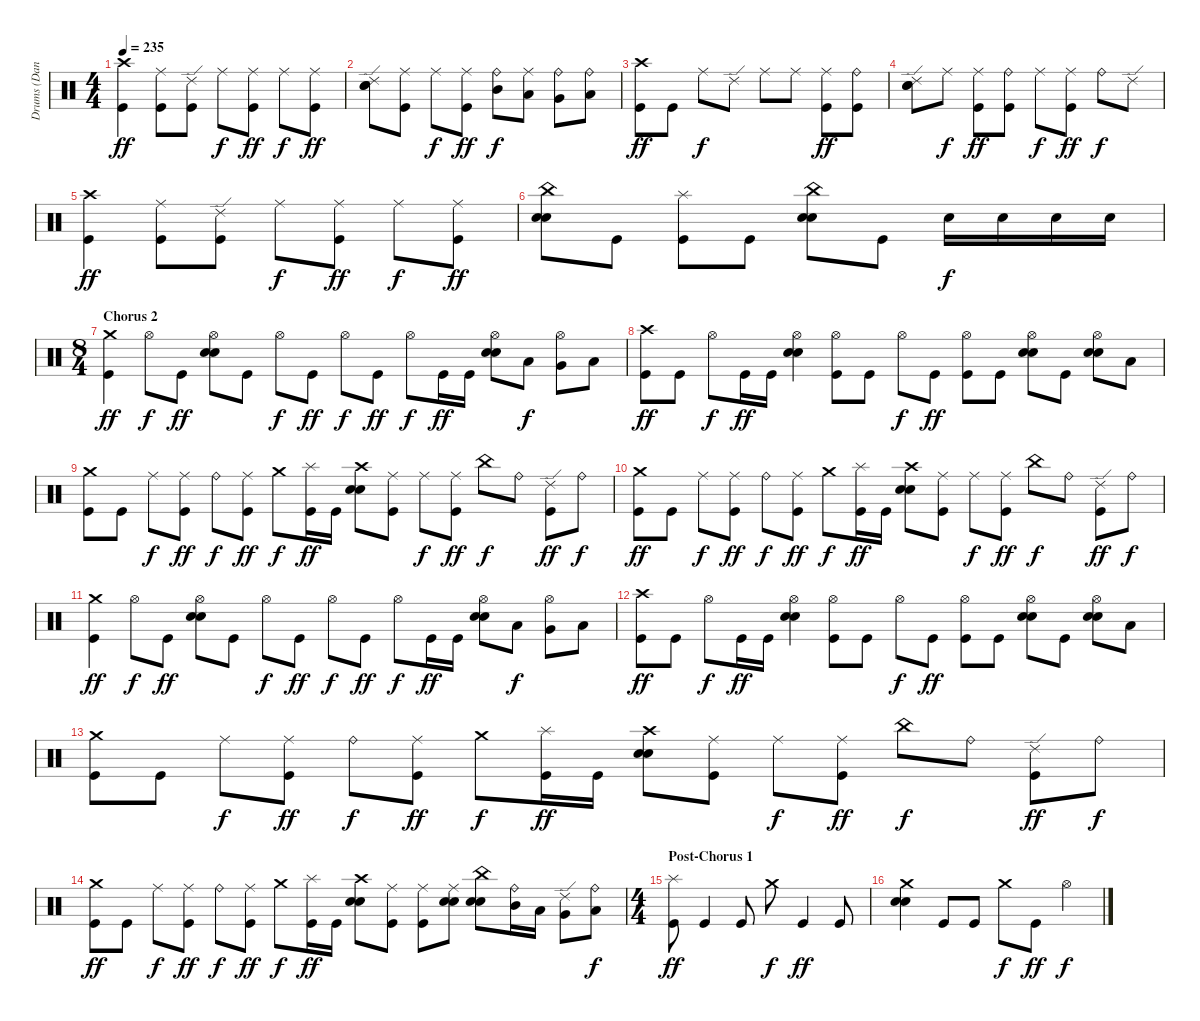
\track ("Drums (Dan)" "Drums (Dan") {instrument percussion}
\staff {score}
\articulation defaults
\ts (4 4)
\tempo 235
\clef neutral
\ks c
("Kick (hit)" "Crash high (hit)").4{dy ff} ("Kick (hit)" "Ride (middle)").8 ("Kick (hit)" "Ride (edge) 2").8 "Ride (middle)".8{dy f} ("Kick (hit)" "Ride (middle)").8{dy ff} "Ride (middle)".8{dy f} ("Kick (hit)" "Ride (middle)").8{dy ff} |
("Electric Snare (hit)" "Electric Snare (hit)" "Ride (edge) 2").8 ("Kick (hit)" "Ride (middle)").8 "Ride (middle)".8{dy f} ("Kick (hit)" "Ride (middle)").8{dy ff} ("Mid Tom (hit)" "Ride (bell)").8{dy f} ("Low Tom (hit)" "Ride (middle)").8 ("Very Low Tom (hit)" "Ride (bell)").8 ("Low Floor Tom (hit)" "Ride (bell)").8 |
("Kick (hit)" "Crash high (hit)").8{dy ff} "Kick (hit)".8 "Ride (middle)".8{dy f} "Ride (edge) 2".8 "Ride (middle)".8 "Ride (middle)".8 ("Kick (hit)" "Ride (middle)").8{dy ff} ("Kick (hit)" "Ride (bell)").8 |
("Electric Snare (hit)" "Electric Snare (hit)" "Ride (edge) 2").8 "Ride (middle)".8{dy f} ("Kick (hit)" "Ride (middle)").8{dy ff} ("Kick (hit)" "Ride (bell)").8 "Ride (middle)".8{dy f} ("Kick (hit)" "Ride (middle)").8{dy ff} "Ride (bell)".8{dy f} "Ride (edge) 2".8 |
("Kick (hit)" "Crash high (hit)").4{dy ff} ("Kick (hit)" "Ride (middle)").8 ("Kick (hit)" "Ride (edge) 2").8 "Ride (middle)".8{dy f} ("Kick (hit)" "Ride (middle)").8{dy ff} "Ride (middle)".8{dy f} ("Kick (hit)" "Ride (middle)").8{dy ff} |
("Electric Snare (hit)" "Electric Snare (hit)" "China (hit)").8 "Kick (hit)".8 ("Kick (hit)" "Splash (hit)").8 "Kick (hit)".8 ("Electric Snare (hit)" "Electric Snare (hit)" "China (hit)").8 "Kick (hit)".8 "Electric Snare (hit)".16{dy f} "Electric Snare (hit)".16 "Electric Snare (hit)".16 "Electric Snare (hit)".16 |
\ts (8 4)
\section ("" "Chorus 2")
("Kick (hit)" "Crash medium (hit)").4{dy ff} "Hi-Hat (open)".8{dy f} "Kick (hit)".8{dy ff} ("Electric Snare (hit)" "Electric Snare (hit)" "Hi-Hat (open)").8 "Kick (hit)".8 "Hi-Hat (open)".8{dy f} "Kick (hit)".8{dy ff} "Hi-Hat (open)".8{dy f} "Kick (hit)".8{dy ff} "Hi-Hat (open)".8{dy f} "Kick (hit)".16{dy ff} "Kick (hit)".16 ("Electric Snare (hit)" "Electric Snare (hit)" "Hi-Hat (open)").8 "Low Tom (hit)".8{dy f} ("Very Low Tom (hit)" "Hi-Hat (open)").8 "Low Floor Tom (hit)".8 |
("Kick (hit)" "Crash high (hit)").8{dy ff} "Kick (hit)".8 "Hi-Hat (open)".8{dy f} "Kick (hit)".16{dy ff} "Kick (hit)".16 ("Electric Snare (hit)" "Electric Snare (hit)" "Hi-Hat (open)").4 ("Kick (hit)" "Hi-Hat (open)").8 "Kick (hit)".8 "Hi-Hat (open)".8{dy f} "Kick (hit)".8{dy ff} ("Kick (hit)" "Hi-Hat (open)").8 "Kick (hit)".8 ("Electric Snare (hit)" "Electric Snare (hit)" "Hi-Hat (open)").8 "Kick (hit)".8 ("Electric Snare (hit)" "Electric Snare (hit)" "Hi-Hat (open)").8 "Low Floor Tom (hit)".8 |
("Kick (hit)" "Crash medium (hit)").8 "Kick (hit)".8 "Ride (middle)".8{dy f} ("Kick (hit)" "Ride (middle)").8{dy ff} "Ride (bell)".8{dy f} ("Kick (hit)" "Ride (middle)").8{dy ff} "Crash medium (hit)".8{dy f} ("Kick (hit)" "Splash (hit)").16{dy ff} "Kick (hit)".16 ("Electric Snare (hit)" "Electric Snare (hit)" "Crash high (hit)").8 ("Kick (hit)" "Ride (middle)").8 "Ride (middle)".8{dy f} ("Kick (hit)" "Ride (middle)").8{dy ff} "China (hit)".8{dy f} "Ride (bell)".8 ("Kick (hit)" "Ride (edge) 2").8{dy ff} "Ride (bell)".8{dy f} |
("Kick (hit)" "Crash medium (hit)").8{dy ff} "Kick (hit)".8 "Ride (middle)".8{dy f} ("Kick (hit)" "Ride (middle)").8{dy ff} "Ride (bell)".8{dy f} ("Kick (hit)" "Ride (middle)").8{dy ff} "Crash medium (hit)".8{dy f} ("Kick (hit)" "Splash (hit)").16{dy ff} "Kick (hit)".16 ("Electric Snare (hit)" "Electric Snare (hit)" "Crash high (hit)").8 ("Kick (hit)" "Ride (middle)").8 "Ride (middle)".8{dy f} ("Kick (hit)" "Ride (middle)").8{dy ff} "China (hit)".8{dy f} "Ride (bell)".8 ("Kick (hit)" "Ride (edge) 2").8{dy ff} "Ride (bell)".8{dy f} |
("Kick (hit)" "Crash medium (hit)").4{dy ff} "Hi-Hat (open)".8{dy f} "Kick (hit)".8{dy ff} ("Electric Snare (hit)" "Electric Snare (hit)" "Hi-Hat (open)").8 "Kick (hit)".8 "Hi-Hat (open)".8{dy f} "Kick (hit)".8{dy ff} "Hi-Hat (open)".8{dy f} "Kick (hit)".8{dy ff} "Hi-Hat (open)".8{dy f} "Kick (hit)".16{dy ff} "Kick (hit)".16 ("Electric Snare (hit)" "Electric Snare (hit)" "Hi-Hat (open)").8 "Low Tom (hit)".8{dy f} ("Very Low Tom (hit)" "Hi-Hat (open)").8 "Low Floor Tom (hit)".8 |
("Kick (hit)" "Crash high (hit)").8{dy ff} "Kick (hit)".8 "Hi-Hat (open)".8{dy f} "Kick (hit)".16{dy ff} "Kick (hit)".16 ("Electric Snare (hit)" "Electric Snare (hit)" "Hi-Hat (open)").4 ("Kick (hit)" "Hi-Hat (open)").8 "Kick (hit)".8 "Hi-Hat (open)".8{dy f} "Kick (hit)".8{dy ff} ("Kick (hit)" "Hi-Hat (open)").8 "Kick (hit)".8 ("Electric Snare (hit)" "Electric Snare (hit)" "Hi-Hat (open)").8 "Kick (hit)".8 ("Electric Snare (hit)" "Electric Snare (hit)" "Hi-Hat (open)").8 "Low Floor Tom (hit)".8 |
("Kick (hit)" "Crash medium (hit)").8 "Kick (hit)".8 "Ride (middle)".8{dy f} ("Kick (hit)" "Ride (middle)").8{dy ff} "Ride (bell)".8{dy f} ("Kick (hit)" "Ride (middle)").8{dy ff} "Crash medium (hit)".8{dy f} ("Kick (hit)" "Splash (hit)").16{dy ff} "Kick (hit)".16 ("Electric Snare (hit)" "Electric Snare (hit)" "Crash high (hit)").8 ("Kick (hit)" "Ride (middle)").8 "Ride (middle)".8{dy f} ("Kick (hit)" "Ride (middle)").8{dy ff} "China (hit)".8{dy f} "Ride (bell)".8 ("Kick (hit)" "Ride (edge) 2").8{dy ff} "Ride (bell)".8{dy f} |
("Kick (hit)" "Crash medium (hit)").8{dy ff} "Kick (hit)".8 "Ride (middle)".8{dy f} ("Kick (hit)" "Ride (middle)").8{dy ff} "Ride (bell)".8{dy f} ("Kick (hit)" "Ride (middle)").8{dy ff} "Crash medium (hit)".8{dy f} ("Kick (hit)" "Splash (hit)").16{dy ff} "Kick (hit)".16 ("Electric Snare (hit)" "Electric Snare (hit)" "Crash high (hit)").8 ("Kick (hit)" "Ride (middle)").8 ("Kick (hit)" "Ride (middle)").8 ("Electric Snare (hit)" "Electric Snare (hit)" "Ride (middle)").8 ("Electric Snare (hit)" "Electric Snare (hit)" "China (hit)").8 ("Mid Tom (hit)" "Ride (bell)").16 "Low Tom (hit)".16 ("Very Low Tom (hit)" "Ride (edge) 2").8 ("Low Floor Tom (hit)" "Ride (bell)").8{dy f} |
\ts (4 4)
\section ("" "Post-Chorus 1")
("Kick (hit)" "Splash (hit)").8{dy ff} "Kick (hit)".4 "Kick (hit)".8 "Crash medium (hit)".8{dy f} "Kick (hit)".4{dy ff} "Kick (hit)".8 |
("Electric Snare (hit)" "Electric Snare (hit)" "Crash medium (hit)").4 "Kick (hit)".8 "Kick (hit)".8 "Crash medium (hit)".8{dy f} "Kick (hit)".8{dy ff} "Hi-Hat (open)".4{dy f}
